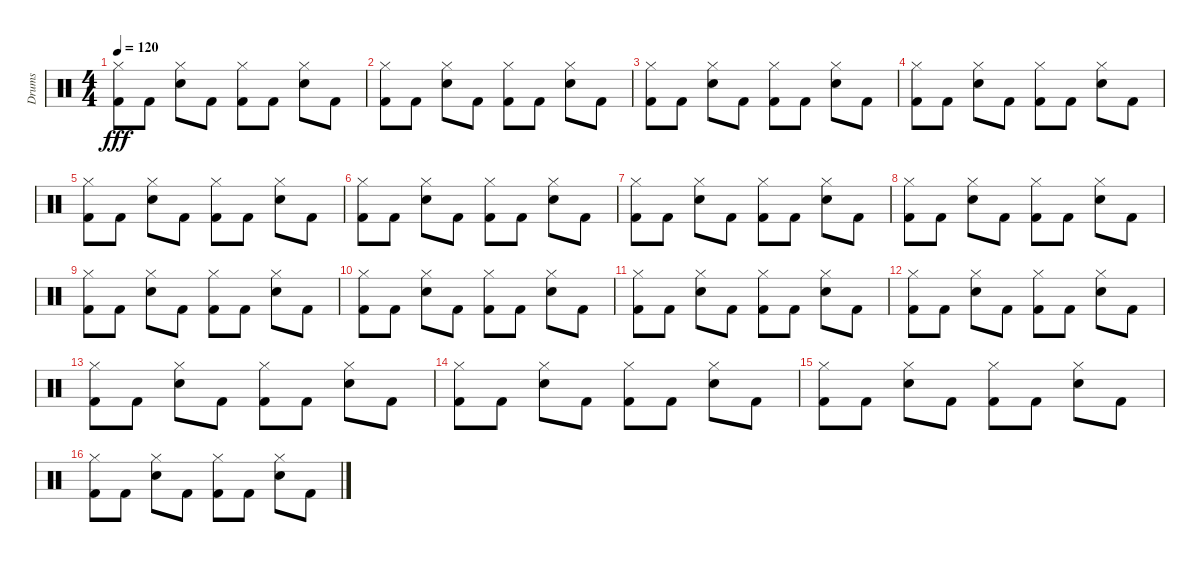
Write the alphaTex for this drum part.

\track ("Drums" "Drums") {instrument percussion}
\staff {score}
\articulation defaults
\ts (4 4)
\tempo 120
\clef neutral
\ks c
("Kick (hit) 2" "Hi-Hat (closed)").8{dy fff} "Kick (hit) 2".8 ("Hi-Hat (closed)" "Snare (hit) 2").8 "Kick (hit) 2".8 ("Kick (hit) 2" "Hi-Hat (closed)").8 "Kick (hit) 2".8 ("Hi-Hat (closed)" "Snare (hit) 2").8 "Kick (hit) 2".8 |
("Kick (hit) 2" "Hi-Hat (closed)").8 "Kick (hit) 2".8 ("Hi-Hat (closed)" "Snare (hit) 2").8 "Kick (hit) 2".8 ("Kick (hit) 2" "Hi-Hat (closed)").8 "Kick (hit) 2".8 ("Hi-Hat (closed)" "Snare (hit) 2").8 "Kick (hit) 2".8 |
("Kick (hit) 2" "Hi-Hat (closed)").8 "Kick (hit) 2".8 ("Hi-Hat (closed)" "Snare (hit) 2").8 "Kick (hit) 2".8 ("Kick (hit) 2" "Hi-Hat (closed)").8 "Kick (hit) 2".8 ("Hi-Hat (closed)" "Snare (hit) 2").8 "Kick (hit) 2".8 |
("Kick (hit) 2" "Hi-Hat (closed)").8 "Kick (hit) 2".8 ("Hi-Hat (closed)" "Snare (hit) 2").8 "Kick (hit) 2".8 ("Kick (hit) 2" "Hi-Hat (closed)").8 "Kick (hit) 2".8 ("Hi-Hat (closed)" "Snare (hit) 2").8 "Kick (hit) 2".8 |
("Kick (hit) 2" "Hi-Hat (closed)").8 "Kick (hit) 2".8 ("Hi-Hat (closed)" "Snare (hit) 2").8 "Kick (hit) 2".8 ("Kick (hit) 2" "Hi-Hat (closed)").8 "Kick (hit) 2".8 ("Hi-Hat (closed)" "Snare (hit) 2").8 "Kick (hit) 2".8 |
("Kick (hit) 2" "Hi-Hat (closed)").8 "Kick (hit) 2".8 ("Hi-Hat (closed)" "Snare (hit) 2").8 "Kick (hit) 2".8 ("Kick (hit) 2" "Hi-Hat (closed)").8 "Kick (hit) 2".8 ("Hi-Hat (closed)" "Snare (hit) 2").8 "Kick (hit) 2".8 |
("Kick (hit) 2" "Hi-Hat (closed)").8 "Kick (hit) 2".8 ("Hi-Hat (closed)" "Snare (hit) 2").8 "Kick (hit) 2".8 ("Kick (hit) 2" "Hi-Hat (closed)").8 "Kick (hit) 2".8 ("Hi-Hat (closed)" "Snare (hit) 2").8 "Kick (hit) 2".8 |
("Kick (hit) 2" "Hi-Hat (closed)").8 "Kick (hit) 2".8 ("Hi-Hat (closed)" "Snare (hit) 2").8 "Kick (hit) 2".8 ("Kick (hit) 2" "Hi-Hat (closed)").8 "Kick (hit) 2".8 ("Hi-Hat (closed)" "Snare (hit) 2").8 "Kick (hit) 2".8 |
("Kick (hit) 2" "Hi-Hat (closed)").8 "Kick (hit) 2".8 ("Hi-Hat (closed)" "Snare (hit) 2").8 "Kick (hit) 2".8 ("Kick (hit) 2" "Hi-Hat (closed)").8 "Kick (hit) 2".8 ("Hi-Hat (closed)" "Snare (hit) 2").8 "Kick (hit) 2".8 |
("Kick (hit) 2" "Hi-Hat (closed)").8 "Kick (hit) 2".8 ("Hi-Hat (closed)" "Snare (hit) 2").8 "Kick (hit) 2".8 ("Kick (hit) 2" "Hi-Hat (closed)").8 "Kick (hit) 2".8 ("Hi-Hat (closed)" "Snare (hit) 2").8 "Kick (hit) 2".8 |
("Kick (hit) 2" "Hi-Hat (closed)").8 "Kick (hit) 2".8 ("Hi-Hat (closed)" "Snare (hit) 2").8 "Kick (hit) 2".8 ("Kick (hit) 2" "Hi-Hat (closed)").8 "Kick (hit) 2".8 ("Hi-Hat (closed)" "Snare (hit) 2").8 "Kick (hit) 2".8 |
("Kick (hit) 2" "Hi-Hat (closed)").8 "Kick (hit) 2".8 ("Hi-Hat (closed)" "Snare (hit) 2").8 "Kick (hit) 2".8 ("Kick (hit) 2" "Hi-Hat (closed)").8 "Kick (hit) 2".8 ("Hi-Hat (closed)" "Snare (hit) 2").8 "Kick (hit) 2".8 |
("Kick (hit) 2" "Hi-Hat (closed)").8 "Kick (hit) 2".8 ("Hi-Hat (closed)" "Snare (hit) 2").8 "Kick (hit) 2".8 ("Kick (hit) 2" "Hi-Hat (closed)").8 "Kick (hit) 2".8 ("Hi-Hat (closed)" "Snare (hit) 2").8 "Kick (hit) 2".8 |
("Kick (hit) 2" "Hi-Hat (closed)").8 "Kick (hit) 2".8 ("Hi-Hat (closed)" "Snare (hit) 2").8 "Kick (hit) 2".8 ("Kick (hit) 2" "Hi-Hat (closed)").8 "Kick (hit) 2".8 ("Hi-Hat (closed)" "Snare (hit) 2").8 "Kick (hit) 2".8 |
("Kick (hit) 2" "Hi-Hat (closed)").8 "Kick (hit) 2".8 ("Hi-Hat (closed)" "Snare (hit) 2").8 "Kick (hit) 2".8 ("Kick (hit) 2" "Hi-Hat (closed)").8 "Kick (hit) 2".8 ("Hi-Hat (closed)" "Snare (hit) 2").8 "Kick (hit) 2".8 |
("Kick (hit) 2" "Hi-Hat (closed)").8 "Kick (hit) 2".8 ("Hi-Hat (closed)" "Snare (hit) 2").8 "Kick (hit) 2".8 ("Kick (hit) 2" "Hi-Hat (closed)").8 "Kick (hit) 2".8 ("Hi-Hat (closed)" "Snare (hit) 2").8 "Kick (hit) 2".8
